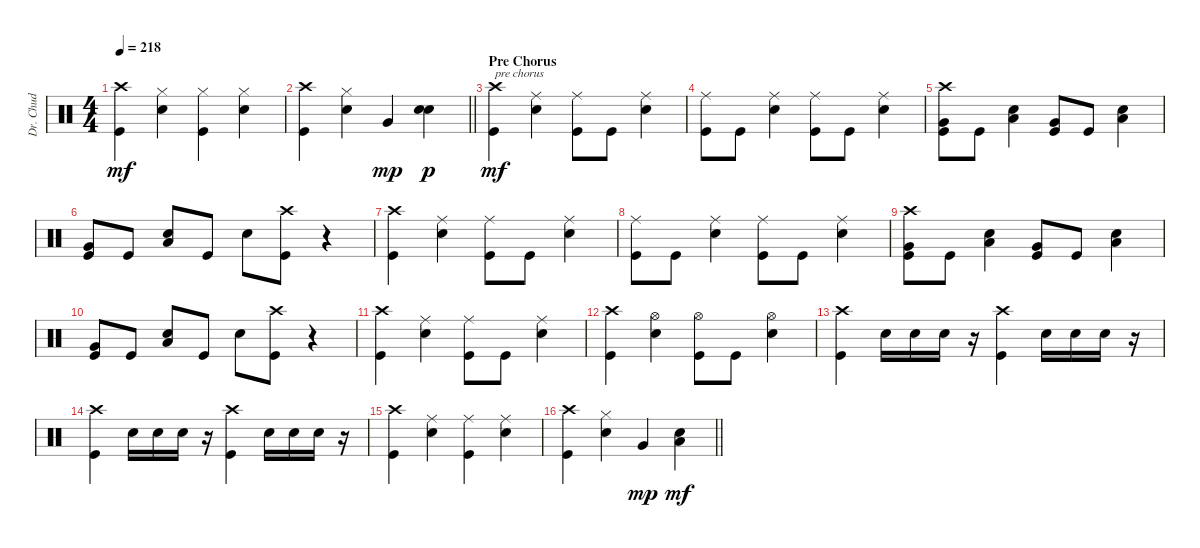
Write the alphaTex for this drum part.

\track ("Dr. Chud" "Dr. Chud") {instrument percussion}
\staff {score}
\articulation defaults
\ts (4 4)
\tempo 218
\clef neutral
\ks c
("Crash high (hit)" "Kick (hit)").4{dy mf} ("Hi-Hat (closed)" "Electric Snare (hit)").4 ("Hi-Hat (closed)" "Kick (hit)").4 ("Hi-Hat (closed)" "Electric Snare (hit)").4 |
\barLineRight lightlight
("Crash high (hit)" "Kick (hit)").4 ("Hi-Hat (closed)" "Electric Snare (hit)").4 "Very Low Tom (hit)".4{dy mp} ("Snare (hit) 2" "Electric Snare (hit)").4{dy p} |
\section ("" "Pre Chorus")
("Crash high (hit)" "Kick (hit)").4{txt "pre chorus" dy mf} ("Ride (middle)" "Electric Snare (hit)").4 ("Ride (middle)" "Kick (hit)").8 "Kick (hit)".8 ("Ride (middle)" "Electric Snare (hit)").4 |
("Ride (middle)" "Kick (hit)").8 "Kick (hit)".8 ("Ride (middle)" "Electric Snare (hit)").4 ("Ride (middle)" "Kick (hit)").8 "Kick (hit)".8 ("Ride (middle)" "Electric Snare (hit)").4 |
("Crash high (hit)" "Very Low Tom (hit)" "Kick (hit)").8 "Kick (hit)".8 ("Low Floor Tom (hit)" "Electric Snare (hit)").4 ("Very Low Tom (hit)" "Kick (hit)").8 "Kick (hit)".8 ("Low Floor Tom (hit)" "Electric Snare (hit)").4 |
("Very Low Tom (hit)" "Kick (hit)").8 "Kick (hit)".8 ("Low Floor Tom (hit)" "Electric Snare (hit)").8 "Kick (hit)".8 "Electric Snare (hit)".8 ("Crash high (hit)" "Kick (hit)").8 r.4 |
("Crash high (hit)" "Kick (hit)").4 ("Ride (middle)" "Electric Snare (hit)").4 ("Ride (middle)" "Kick (hit)").8 "Kick (hit)".8 ("Ride (middle)" "Electric Snare (hit)").4 |
("Ride (middle)" "Kick (hit)").8 "Kick (hit)".8 ("Ride (middle)" "Electric Snare (hit)").4 ("Ride (middle)" "Kick (hit)").8 "Kick (hit)".8 ("Ride (middle)" "Electric Snare (hit)").4 |
("Crash high (hit)" "Very Low Tom (hit)" "Kick (hit)").8 "Kick (hit)".8 ("Low Floor Tom (hit)" "Electric Snare (hit)").4 ("Very Low Tom (hit)" "Kick (hit)").8 "Kick (hit)".8 ("Low Floor Tom (hit)" "Electric Snare (hit)").4 |
("Very Low Tom (hit)" "Kick (hit)").8 "Kick (hit)".8 ("Low Floor Tom (hit)" "Electric Snare (hit)").8 "Kick (hit)".8 "Electric Snare (hit)".8 ("Crash high (hit)" "Kick (hit)").8 r.4 |
("Crash high (hit)" "Kick (hit)").4 ("Ride (middle)" "Electric Snare (hit)").4 ("Ride (middle)" "Kick (hit)").8 "Kick (hit)".8 ("Ride (middle)" "Electric Snare (hit)").4 |
("Crash high (hit)" "Kick (hit)").4 ("Hi-Hat (open)" "Electric Snare (hit)").4 ("Hi-Hat (open)" "Kick (hit)").8 "Kick (hit)".8 ("Hi-Hat (open)" "Electric Snare (hit)").4 |
("Crash high (hit)" "Kick (hit)").4 "Electric Snare (hit)".16 "Electric Snare (hit)".16 "Electric Snare (hit)".16 r.16 ("Crash high (hit)" "Kick (hit)").4 "Electric Snare (hit)".16 "Electric Snare (hit)".16 "Electric Snare (hit)".16 r.16 |
("Crash high (hit)" "Kick (hit)").4 "Electric Snare (hit)".16 "Electric Snare (hit)".16 "Electric Snare (hit)".16 r.16 ("Crash high (hit)" "Kick (hit)").4 "Electric Snare (hit)".16 "Electric Snare (hit)".16 "Electric Snare (hit)".16 r.16 |
("Crash high (hit)" "Kick (hit)").4 ("Ride (middle)" "Electric Snare (hit)").4 ("Ride (middle)" "Kick (hit)").4 ("Ride (middle)" "Electric Snare (hit)").4 |
\barLineRight lightlight
("Crash high (hit)" "Kick (hit)").4 ("Hi-Hat (closed)" "Electric Snare (hit)").4 "Very Low Tom (hit)".4{dy mp} ("Low Floor Tom (hit)" "Electric Snare (hit)").4{dy mf}
